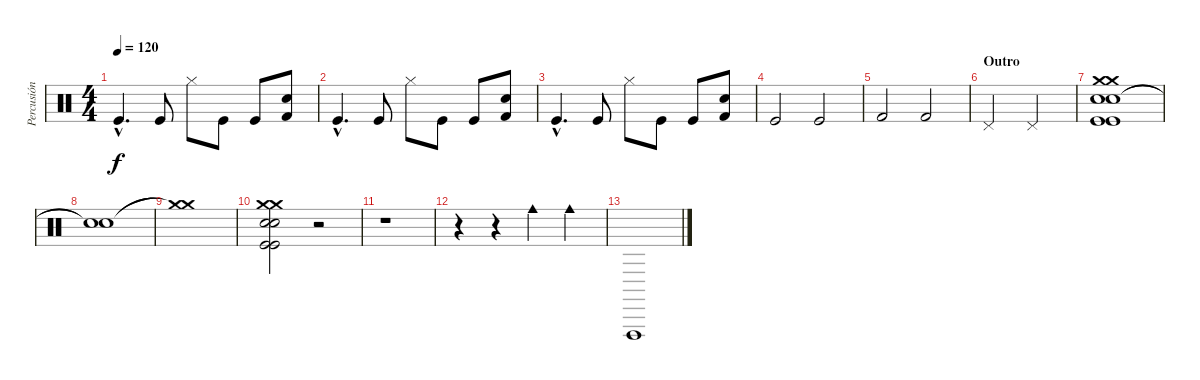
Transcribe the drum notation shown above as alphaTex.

\track ("Percusión" "Percusión") {instrument percussion}
\staff {score}
\articulation defaults
\ts (4 4)
\tempo 120
\clef neutral
\ks c "Kick (hit)"{hac}.4{d dy f} "Kick (hit)".8 "Hi-Hat (closed)".8 "Kick (hit)".8 "Kick (hit)".8
("Snare (hit) 2" "Kick (hit) 2").8 |
"Kick (hit)"{hac}.4{d} "Kick (hit)".8 "Hi-Hat (closed)".8 "Kick (hit)".8 "Kick (hit)".8 ("Snare (hit) 2" "Kick (hit) 2").8 |
"Kick (hit)"{hac}.4{d} "Kick (hit)".8 "Hi-Hat (closed)".8 "Kick (hit)".8 "Kick (hit)".8 ("Snare (hit) 2" "Kick (hit) 2").8 |
"Kick (hit)".2 "Kick (hit)".2 |
"Kick (hit) 2".2 "Kick (hit) 2".2 |
\section ("" "Outro")
"Pedal Hi-Hat (hit)".2 "Pedal Hi-Hat (hit)".2 |
("Snare (hit) 2" "Snare (hit) 2" "Kick (hit)" "Kick (hit)" "Crash medium (hit)" "Crash medium (hit)").1 |
("Snare (hit)"{t} "Snare (hit)"{t}).1 |
("Crash medium (hit)"{t} "Crash medium (hit)"{t}).1 |
("Snare (hit) 2" "Snare (hit) 2" "Kick (hit)" "Kick (hit)" "Crash medium (hit)" "Crash medium (hit)").2 r.2 |
r.1 |
r.4 r.4 "Cowbell medium (hit)".4 "Cowbell medium (hit)".4 |
"Vibraslap (hit)".1{volume 6}
